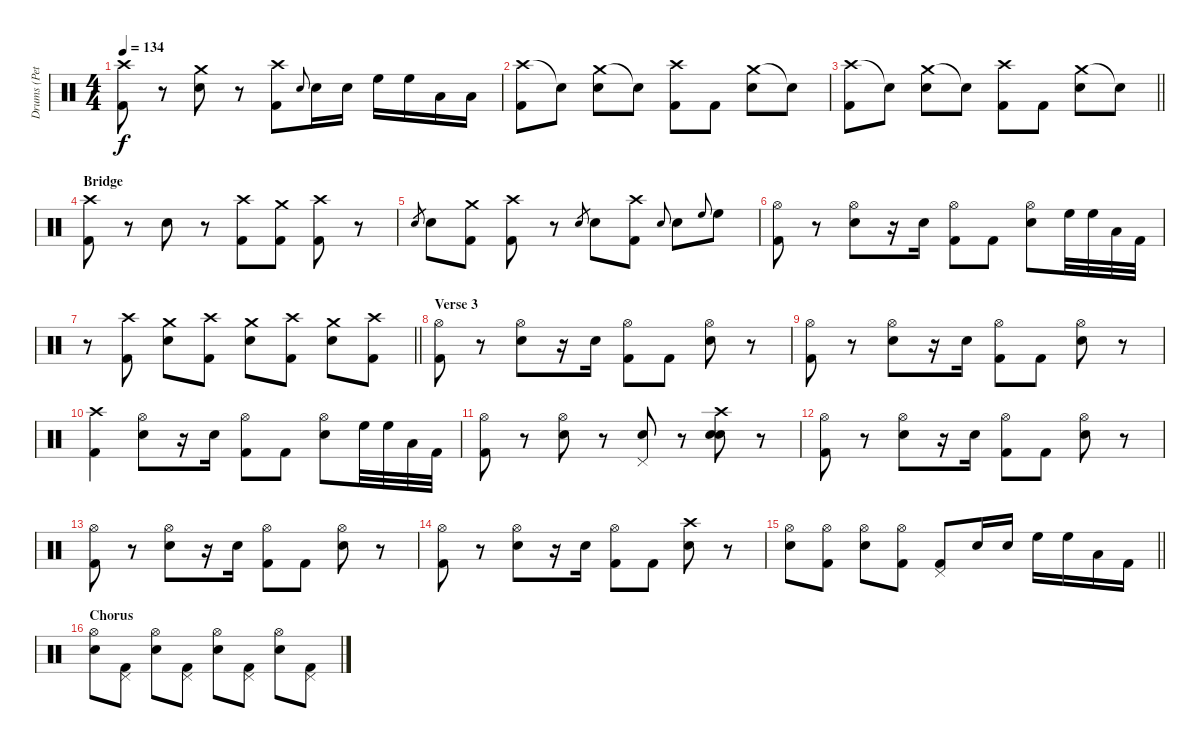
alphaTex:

\track ("Drums (Peter)" "Drums (Pet") {instrument percussion}
\staff {score}
\articulation defaults
\ts (4 4)
\tempo 134
\clef neutral
\ks c
("Crash high (hit)" "Kick (hit) 2").8{dy f} r.8 ("Crash medium (hit)" "Electric Snare (hit)").8 r.8 ("Crash high (hit)" "Kick (hit) 2").8 "Electric Snare (hit)".8{gr onbeat} "Electric Snare (hit)".16 "Electric Snare (hit)".16 "High Floor Tom (hit)".16 "High Floor Tom (hit)".16 "Low Tom (hit)".16 "Low Tom (hit)".16 |
("Crash high (hit)" "Kick (hit) 2").8 "Snare (hit)"{t}.8 ("Crash medium (hit)" "Electric Snare (hit)").8 "Snare (hit)"{t}.8 ("Crash high (hit)" "Kick (hit) 2").8 "Kick (hit) 2".8 ("Crash medium (hit)" "Electric Snare (hit)").8 "Snare (hit)"{t}.8 |
\barLineRight lightlight
("Crash high (hit)" "Kick (hit) 2").8 "Snare (hit)"{t}.8 ("Crash medium (hit)" "Electric Snare (hit)").8 "Snare (hit)"{t}.8 ("Crash high (hit)" "Kick (hit) 2").8 "Kick (hit) 2".8 ("Crash medium (hit)" "Electric Snare (hit)").8 "Snare (hit)"{t}.8 |
\section ("" "Bridge")
("Crash high (hit)" "Kick (hit) 2").8 r.8 "Snare (hit) 2".8 r.8 ("Crash high (hit)" "Kick (hit) 2").8 ("Crash medium (hit)" "Kick (hit) 2").8 ("Crash high (hit)" "Kick (hit) 2").8 r.8 |
"Electric Snare (hit)".8{gr} "Snare (hit) 2".8 ("Crash medium (hit)" "Kick (hit) 2").8 ("Crash high (hit)" "Kick (hit) 2").8 r.8 "Snare (hit) 2".8{gr} "Snare (hit) 2".8 ("Crash high (hit)" "Kick (hit) 2").8 "Snare (hit) 2".8{gr onbeat} "Snare (hit) 2".8 "High Floor Tom (hit)".8{gr onbeat} "High Floor Tom (hit)".8 |
("Hi-Hat (open)" "Kick (hit) 2").8 r.8 ("Hi-Hat (open)" "Snare (hit) 2").8 r.16 "Snare (hit) 2".16 ("Hi-Hat (open)" "Kick (hit) 2").8 "Kick (hit) 2".8 ("Hi-Hat (open)" "Snare (hit) 2").8 "High Floor Tom (hit)".32 "High Floor Tom (hit)".32 "Low Floor Tom (hit)".32 "Kick (hit) 2".32 |
\barLineRight lightlight
r.8 ("Crash high (hit)" "Kick (hit) 2").8 ("Crash medium (hit)" "Electric Snare (hit)").8 ("Crash high (hit)" "Kick (hit) 2").8 ("Crash medium (hit)" "Electric Snare (hit)").8 ("Crash high (hit)" "Kick (hit) 2").8 ("Crash medium (hit)" "Electric Snare (hit)").8 ("Crash high (hit)" "Kick (hit) 2").8 |
\section ("" "Verse 3")
("Hi-Hat (open)" "Kick (hit) 2").8 r.8 ("Hi-Hat (open)" "Electric Snare (hit)").8 r.16 "Snare (hit) 2".16 ("Hi-Hat (open)" "Kick (hit) 2").8 "Kick (hit) 2".8 ("Hi-Hat (open)" "Electric Snare (hit)").8 r.8 |
("Hi-Hat (open)" "Kick (hit) 2").8 r.8 ("Hi-Hat (open)" "Electric Snare (hit)").8 r.16 "Snare (hit) 2".16 ("Hi-Hat (open)" "Kick (hit) 2").8 "Kick (hit) 2".8 ("Hi-Hat (open)" "Electric Snare (hit)").8 r.8 |
("Crash high (hit)" "Kick (hit) 2").4 ("Hi-Hat (open)" "Electric Snare (hit)").8 r.16 "Snare (hit) 2".16 ("Hi-Hat (open)" "Kick (hit) 2").8 "Kick (hit) 2".8 ("Hi-Hat (open)" "Electric Snare (hit)").8 "High Floor Tom (hit)".32 "High Floor Tom (hit)".32 "Low Floor Tom (hit)".32 "Kick (hit) 2".32 |
("Hi-Hat (open)" "Kick (hit) 2").8 r.8 ("Hi-Hat (open)" "Electric Snare (hit)").8 r.8 ("Pedal Hi-Hat (hit)" "Electric Snare (hit)").8 r.8 ("Crash high (hit)" "Electric Snare (hit)" "Electric Snare (hit)").8 r.8 |
("Hi-Hat (open)" "Kick (hit) 2").8 r.8 ("Hi-Hat (open)" "Electric Snare (hit)").8 r.16 "Snare (hit) 2".16 ("Hi-Hat (open)" "Kick (hit) 2").8 "Kick (hit) 2".8 ("Hi-Hat (open)" "Electric Snare (hit)").8 r.8 |
("Hi-Hat (open)" "Kick (hit) 2").8 r.8 ("Hi-Hat (open)" "Electric Snare (hit)").8 r.16 "Snare (hit) 2".16 ("Hi-Hat (open)" "Kick (hit) 2").8 "Kick (hit) 2".8 ("Hi-Hat (open)" "Electric Snare (hit)").8 r.8 |
("Hi-Hat (open)" "Kick (hit) 2").8 r.8 ("Hi-Hat (open)" "Electric Snare (hit)").8 r.16 "Snare (hit) 2".16 ("Hi-Hat (open)" "Kick (hit) 2").8 "Kick (hit) 2".8 ("Crash high (hit)" "Electric Snare (hit)").8 r.8 |
\barLineRight lightlight
("Hi-Hat (open)" "Electric Snare (hit)").8 ("Hi-Hat (open)" "Kick (hit) 2").8 ("Hi-Hat (open)" "Electric Snare (hit)").8 ("Hi-Hat (open)" "Kick (hit) 2").8 ("Pedal Hi-Hat (hit)" "Kick (hit) 2").8 "Electric Snare (hit)".16 "Electric Snare (hit)".16 "High Floor Tom (hit)".16 "High Floor Tom (hit)".16 "Low Floor Tom (hit)".16 "Kick (hit) 2".16 |
\section ("" "Chorus")
("Hi-Hat (open)" "Electric Snare (hit)").8 ("Pedal Hi-Hat (hit)" "Kick (hit) 2").8 ("Hi-Hat (open)" "Electric Snare (hit)").8 ("Pedal Hi-Hat (hit)" "Kick (hit) 2").8 ("Hi-Hat (open)" "Electric Snare (hit)").8 ("Pedal Hi-Hat (hit)" "Kick (hit) 2").8 ("Hi-Hat (open)" "Electric Snare (hit)").8 ("Pedal Hi-Hat (hit)" "Kick (hit) 2").8
